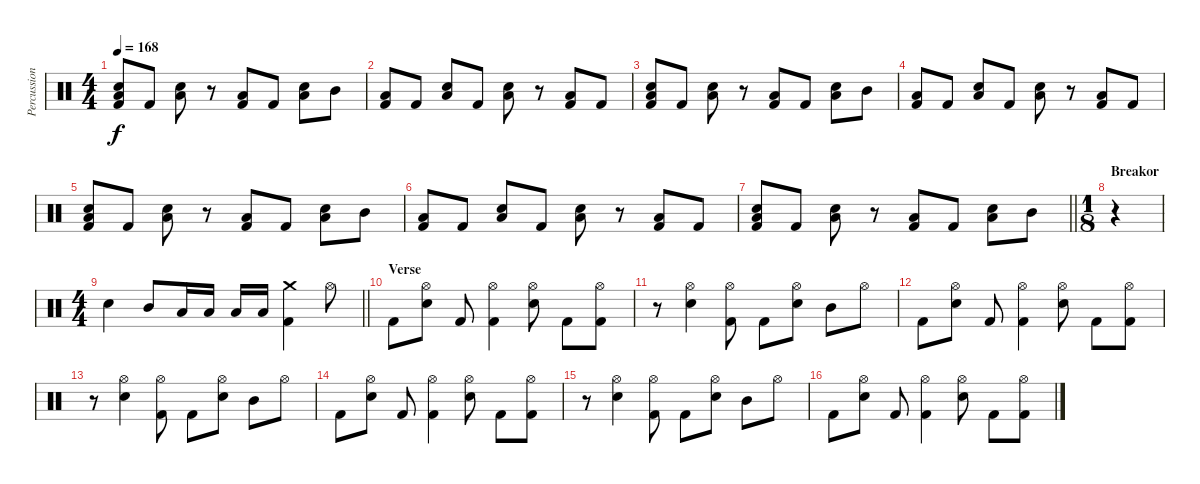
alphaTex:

\track ("Percussion" "Percussion") {instrument percussion}
\staff {score}
\articulation defaults
\ts (4 4)
\tempo 168
\clef neutral
\ks c
("Low Tom (hit)" "Snare (hit) 2" "Kick (hit) 2").8{dy f} "Kick (hit) 2".8 ("Low Tom (hit)" "Snare (hit) 2").8 r.8 ("Low Tom (hit)" "Kick (hit) 2").8 "Kick (hit) 2".8 ("Low Tom (hit)" "Snare (hit) 2").8 "Mid Tom (hit)".8 |
("Low Tom (hit)" "Kick (hit) 2").8 "Kick (hit) 2".8 ("Low Tom (hit)" "Snare (hit) 2").8 "Kick (hit) 2".8 ("Low Tom (hit)" "Snare (hit) 2").8 r.8 ("Low Tom (hit)" "Kick (hit) 2").8 "Kick (hit) 2".8 |
("Low Tom (hit)" "Snare (hit) 2" "Kick (hit) 2").8 "Kick (hit) 2".8 ("Low Tom (hit)" "Snare (hit) 2").8 r.8 ("Low Tom (hit)" "Kick (hit) 2").8 "Kick (hit) 2".8 ("Low Tom (hit)" "Snare (hit) 2").8 "Mid Tom (hit)".8 |
("Low Tom (hit)" "Kick (hit) 2").8 "Kick (hit) 2".8 ("Low Tom (hit)" "Snare (hit) 2").8 "Kick (hit) 2".8 ("Low Tom (hit)" "Snare (hit) 2").8 r.8 ("Low Tom (hit)" "Kick (hit) 2").8 "Kick (hit) 2".8 |
("Low Tom (hit)" "Snare (hit) 2" "Kick (hit) 2").8 "Kick (hit) 2".8 ("Low Tom (hit)" "Snare (hit) 2").8 r.8 ("Low Tom (hit)" "Kick (hit) 2").8 "Kick (hit) 2".8 ("Low Tom (hit)" "Snare (hit) 2").8 "Mid Tom (hit)".8 |
("Low Tom (hit)" "Kick (hit) 2").8 "Kick (hit) 2".8 ("Low Tom (hit)" "Snare (hit) 2").8 "Kick (hit) 2".8 ("Low Tom (hit)" "Snare (hit) 2").8 r.8 ("Low Tom (hit)" "Kick (hit) 2").8 "Kick (hit) 2".8 |
\barLineRight lightlight
("Low Tom (hit)" "Snare (hit) 2" "Kick (hit) 2").8 "Kick (hit) 2".8 ("Low Tom (hit)" "Snare (hit) 2").8 r.8 ("Low Tom (hit)" "Kick (hit) 2").8 "Kick (hit) 2".8 ("Low Tom (hit)" "Snare (hit) 2").8 "Mid Tom (hit)".8 |
\ts (1 8)
\section ("" "Breakor")
r.4 |
\ts (4 4)
\barLineRight lightlight "Snare (hit) 2".4 "Mid Tom (hit)".8 "Low Tom (hit)".16 "Low Tom (hit)".16 "Low Tom (hit)".16 "Low Tom (hit)".16
("Crash medium (hit)" "Kick (hit) 2").4 "Hi-Hat (open)".8 |
\section ("" "Verse")
"Kick (hit) 2".8 ("Hi-Hat (open)" "Snare (hit) 2").8 "Kick (hit) 2".8 ("Hi-Hat (open)" "Kick (hit) 2").4 ("Hi-Hat (open)" "Snare (hit) 2").8 "Kick (hit) 2".8 ("Hi-Hat (open)" "Kick (hit) 2").8 |
r.8 ("Hi-Hat (open)" "Snare (hit) 2").4 ("Hi-Hat (open)" "Kick (hit) 2").8 "Kick (hit) 2".8 ("Hi-Hat (open)" "Snare (hit) 2").8 "Mid Tom (hit)".8 "Hi-Hat (open)".8 |
"Kick (hit) 2".8 ("Hi-Hat (open)" "Snare (hit) 2").8 "Kick (hit) 2".8 ("Hi-Hat (open)" "Kick (hit) 2").4 ("Hi-Hat (open)" "Snare (hit) 2").8 "Kick (hit) 2".8 ("Hi-Hat (open)" "Kick (hit) 2").8 |
r.8 ("Hi-Hat (open)" "Snare (hit) 2").4 ("Hi-Hat (open)" "Kick (hit) 2").8 "Kick (hit) 2".8 ("Hi-Hat (open)" "Snare (hit) 2").8 "Mid Tom (hit)".8 "Hi-Hat (open)".8 |
"Kick (hit) 2".8 ("Hi-Hat (open)" "Snare (hit) 2").8 "Kick (hit) 2".8 ("Hi-Hat (open)" "Kick (hit) 2").4 ("Hi-Hat (open)" "Snare (hit) 2").8 "Kick (hit) 2".8 ("Hi-Hat (open)" "Kick (hit) 2").8 |
r.8 ("Hi-Hat (open)" "Snare (hit) 2").4 ("Hi-Hat (open)" "Kick (hit) 2").8 "Kick (hit) 2".8 ("Hi-Hat (open)" "Snare (hit) 2").8 "Mid Tom (hit)".8 "Hi-Hat (open)".8 |
"Kick (hit) 2".8 ("Hi-Hat (open)" "Snare (hit) 2").8 "Kick (hit) 2".8 ("Hi-Hat (open)" "Kick (hit) 2").4 ("Hi-Hat (open)" "Snare (hit) 2").8 "Kick (hit) 2".8 ("Hi-Hat (open)" "Kick (hit) 2").8
